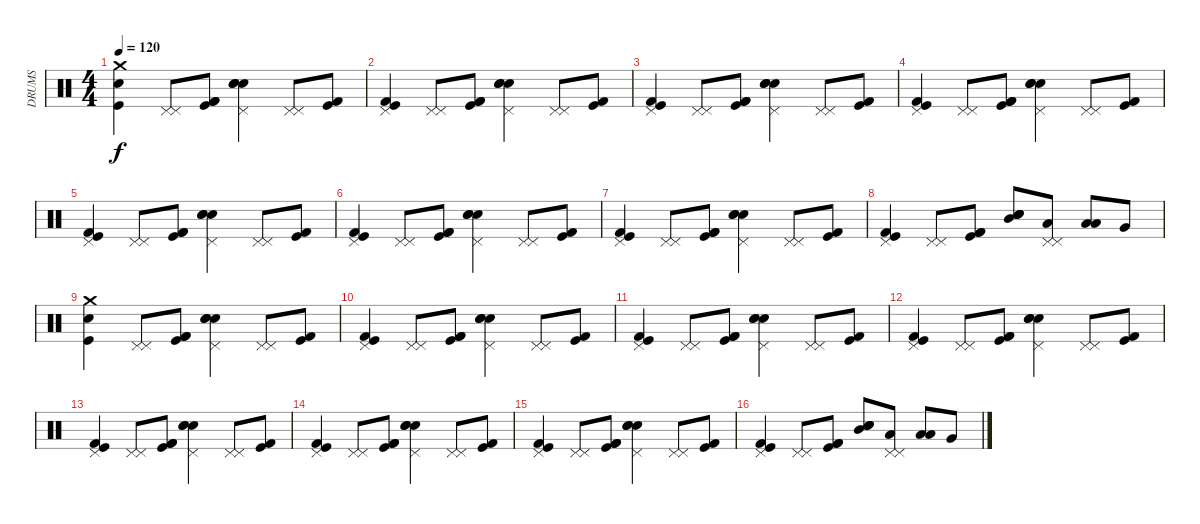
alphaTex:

\track ("DRUMS" "DRUMS") {instrument percussion}
\staff {score}
\articulation defaults
\ts (4 4)
\tempo 120
\clef neutral
\ks c
("Crash medium (hit)" "Snare (hit) 2" "Kick (hit)").4{dy f} ("Pedal Hi-Hat (hit)" "Pedal Hi-Hat (hit)").8 ("Kick (hit) 2" "Kick (hit)" "Kick (hit) 2").8 ("Snare (hit) 2" "Snare (hit) 2" "Pedal Hi-Hat (hit)" "Electric Snare (hit)").4 ("Pedal Hi-Hat (hit)" "Pedal Hi-Hat (hit)").8 ("Kick (hit)" "Kick (hit) 2").8 |
("Pedal Hi-Hat (hit)" "Kick (hit) 2" "Kick (hit)").4 ("Pedal Hi-Hat (hit)" "Pedal Hi-Hat (hit)").8 ("Kick (hit) 2" "Kick (hit)" "Kick (hit) 2").8 ("Snare (hit) 2" "Snare (hit) 2" "Pedal Hi-Hat (hit)" "Electric Snare (hit)").4 ("Pedal Hi-Hat (hit)" "Pedal Hi-Hat (hit)").8 ("Kick (hit)" "Kick (hit) 2").8 |
("Pedal Hi-Hat (hit)" "Kick (hit) 2" "Kick (hit)").4 ("Pedal Hi-Hat (hit)" "Pedal Hi-Hat (hit)").8 ("Kick (hit) 2" "Kick (hit)" "Kick (hit) 2").8 ("Snare (hit) 2" "Snare (hit) 2" "Pedal Hi-Hat (hit)" "Electric Snare (hit)").4 ("Pedal Hi-Hat (hit)" "Pedal Hi-Hat (hit)").8 ("Kick (hit)" "Kick (hit) 2").8 |
("Pedal Hi-Hat (hit)" "Kick (hit) 2" "Kick (hit)").4 ("Pedal Hi-Hat (hit)" "Pedal Hi-Hat (hit)").8 ("Kick (hit) 2" "Kick (hit)" "Kick (hit) 2").8 ("Snare (hit) 2" "Snare (hit) 2" "Pedal Hi-Hat (hit)" "Electric Snare (hit)").4 ("Pedal Hi-Hat (hit)" "Pedal Hi-Hat (hit)").8 ("Kick (hit)" "Kick (hit) 2").8 |
("Pedal Hi-Hat (hit)" "Kick (hit) 2" "Kick (hit)").4 ("Pedal Hi-Hat (hit)" "Pedal Hi-Hat (hit)").8 ("Kick (hit) 2" "Kick (hit)" "Kick (hit) 2").8 ("Snare (hit) 2" "Snare (hit) 2" "Pedal Hi-Hat (hit)" "Electric Snare (hit)").4 ("Pedal Hi-Hat (hit)" "Pedal Hi-Hat (hit)").8 ("Kick (hit)" "Kick (hit) 2").8 |
("Pedal Hi-Hat (hit)" "Kick (hit) 2" "Kick (hit)").4 ("Pedal Hi-Hat (hit)" "Pedal Hi-Hat (hit)").8 ("Kick (hit) 2" "Kick (hit)" "Kick (hit) 2").8 ("Snare (hit) 2" "Snare (hit) 2" "Pedal Hi-Hat (hit)" "Electric Snare (hit)").4 ("Pedal Hi-Hat (hit)" "Pedal Hi-Hat (hit)").8 ("Kick (hit)" "Kick (hit) 2").8 |
("Pedal Hi-Hat (hit)" "Kick (hit) 2" "Kick (hit)").4 ("Pedal Hi-Hat (hit)" "Pedal Hi-Hat (hit)").8 ("Kick (hit) 2" "Kick (hit)" "Kick (hit) 2").8 ("Snare (hit) 2" "Snare (hit) 2" "Pedal Hi-Hat (hit)" "Electric Snare (hit)").4 ("Pedal Hi-Hat (hit)" "Pedal Hi-Hat (hit)").8 ("Kick (hit)" "Kick (hit) 2").8 |
("Pedal Hi-Hat (hit)" "Kick (hit) 2" "Kick (hit)").4 ("Pedal Hi-Hat (hit)" "Pedal Hi-Hat (hit)").8 ("Kick (hit) 2" "Kick (hit)" "Kick (hit) 2").8 ("Snare (hit) 2" "Snare (hit) 2" "Mid Tom (hit)" "Electric Snare (hit)").8 ("Pedal Hi-Hat (hit)" "Pedal Hi-Hat (hit)" "Low Tom (hit)").8 ("Low Floor Tom (hit)" "Low Floor Tom (hit)").8 "Very Low Tom (hit)".8 |
("Crash medium (hit)" "Snare (hit) 2" "Kick (hit)").4 ("Pedal Hi-Hat (hit)" "Pedal Hi-Hat (hit)").8 ("Kick (hit) 2" "Kick (hit)" "Kick (hit) 2").8 ("Snare (hit) 2" "Snare (hit) 2" "Pedal Hi-Hat (hit)" "Electric Snare (hit)").4 ("Pedal Hi-Hat (hit)" "Pedal Hi-Hat (hit)").8 ("Kick (hit)" "Kick (hit) 2").8 |
("Pedal Hi-Hat (hit)" "Kick (hit) 2" "Kick (hit)").4 ("Pedal Hi-Hat (hit)" "Pedal Hi-Hat (hit)").8 ("Kick (hit) 2" "Kick (hit)" "Kick (hit) 2").8 ("Snare (hit) 2" "Snare (hit) 2" "Pedal Hi-Hat (hit)" "Electric Snare (hit)").4 ("Pedal Hi-Hat (hit)" "Pedal Hi-Hat (hit)").8 ("Kick (hit)" "Kick (hit) 2").8 |
("Pedal Hi-Hat (hit)" "Kick (hit) 2" "Kick (hit)").4 ("Pedal Hi-Hat (hit)" "Pedal Hi-Hat (hit)").8 ("Kick (hit) 2" "Kick (hit)" "Kick (hit) 2").8 ("Snare (hit) 2" "Snare (hit) 2" "Pedal Hi-Hat (hit)" "Electric Snare (hit)").4 ("Pedal Hi-Hat (hit)" "Pedal Hi-Hat (hit)").8 ("Kick (hit)" "Kick (hit) 2").8 |
("Pedal Hi-Hat (hit)" "Kick (hit) 2" "Kick (hit)").4 ("Pedal Hi-Hat (hit)" "Pedal Hi-Hat (hit)").8 ("Kick (hit) 2" "Kick (hit)" "Kick (hit) 2").8 ("Snare (hit) 2" "Snare (hit) 2" "Pedal Hi-Hat (hit)" "Electric Snare (hit)").4 ("Pedal Hi-Hat (hit)" "Pedal Hi-Hat (hit)").8 ("Kick (hit)" "Kick (hit) 2").8 |
("Pedal Hi-Hat (hit)" "Kick (hit) 2" "Kick (hit)").4 ("Pedal Hi-Hat (hit)" "Pedal Hi-Hat (hit)").8 ("Kick (hit) 2" "Kick (hit)" "Kick (hit) 2").8 ("Snare (hit) 2" "Snare (hit) 2" "Pedal Hi-Hat (hit)" "Electric Snare (hit)").4 ("Pedal Hi-Hat (hit)" "Pedal Hi-Hat (hit)").8 ("Kick (hit)" "Kick (hit) 2").8 |
("Pedal Hi-Hat (hit)" "Kick (hit) 2" "Kick (hit)").4 ("Pedal Hi-Hat (hit)" "Pedal Hi-Hat (hit)").8 ("Kick (hit) 2" "Kick (hit)" "Kick (hit) 2").8 ("Snare (hit) 2" "Snare (hit) 2" "Pedal Hi-Hat (hit)" "Electric Snare (hit)").4 ("Pedal Hi-Hat (hit)" "Pedal Hi-Hat (hit)").8 ("Kick (hit)" "Kick (hit) 2").8 |
("Pedal Hi-Hat (hit)" "Kick (hit) 2" "Kick (hit)").4 ("Pedal Hi-Hat (hit)" "Pedal Hi-Hat (hit)").8 ("Kick (hit) 2" "Kick (hit)" "Kick (hit) 2").8 ("Snare (hit) 2" "Snare (hit) 2" "Pedal Hi-Hat (hit)" "Electric Snare (hit)").4 ("Pedal Hi-Hat (hit)" "Pedal Hi-Hat (hit)").8 ("Kick (hit)" "Kick (hit) 2").8 |
("Pedal Hi-Hat (hit)" "Kick (hit) 2" "Kick (hit)").4 ("Pedal Hi-Hat (hit)" "Pedal Hi-Hat (hit)").8 ("Kick (hit) 2" "Kick (hit)" "Kick (hit) 2").8 ("Snare (hit) 2" "Snare (hit) 2" "Mid Tom (hit)" "Electric Snare (hit)").8 ("Pedal Hi-Hat (hit)" "Pedal Hi-Hat (hit)" "Low Tom (hit)").8 ("Low Floor Tom (hit)" "Low Floor Tom (hit)").8 "Very Low Tom (hit)".8
